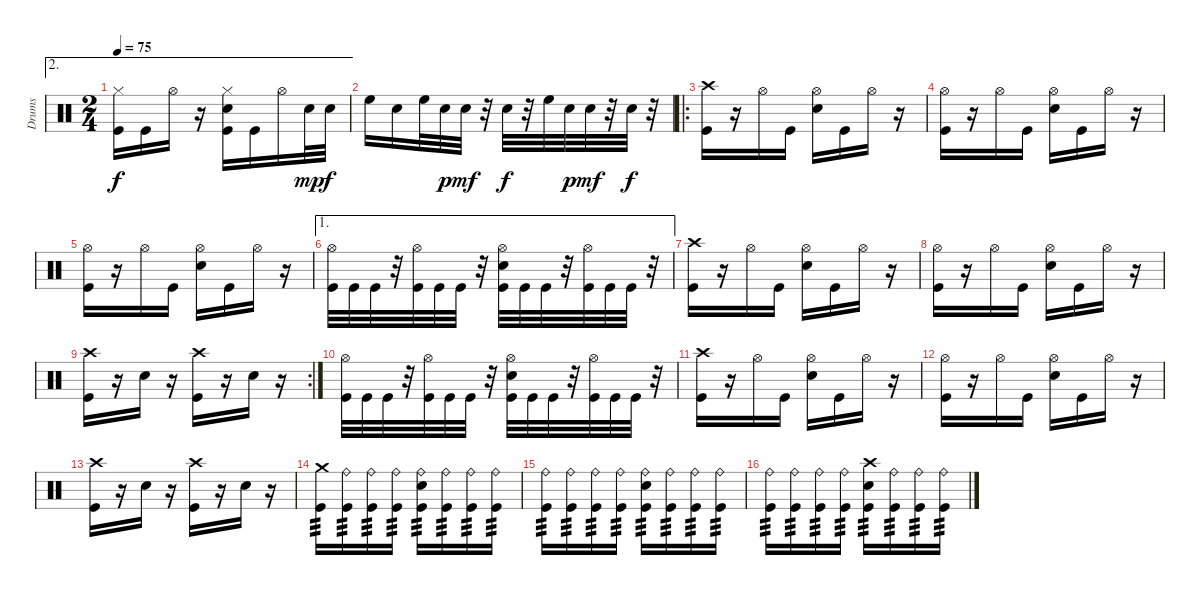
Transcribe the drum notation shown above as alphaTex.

\track ("Drums" "Drums") {instrument percussion}
\staff {score}
\articulation defaults
\ae 2
\ts (2 4)
\tempo 75
\clef neutral
\ks c
("Kick (hit)" "Hi-Hat (closed)").16{dy f} "Kick (hit)".16 "Hi-Hat (open)".16 r.16 ("Kick (hit)" "Hi-Hat (closed)" "Electric Snare (hit)").16 "Kick (hit)".16 "Hi-Hat (open)".16 "Electric Snare (hit)".32{dy mp} "Electric Snare (hit)".32{dy f} |
"High Floor Tom (hit)".16 "Electric Snare (hit)".16 "High Floor Tom (hit)".32 "Electric Snare (hit)".32{dy p} "Electric Snare (hit)".32{dy mf} r.32 "Electric Snare (hit)".32{dy f} r.32 "High Floor Tom (hit)".32 "Electric Snare (hit)".32{dy p} "Electric Snare (hit)".32{dy mf} r.32 "Electric Snare (hit)".32{dy f} r.32 |
\ro
("Crash high (hit)" "Kick (hit)").16 r.16 "Hi-Hat (open)".16 "Kick (hit)".16 ("Electric Snare (hit)" "Hi-Hat (open)").16 "Kick (hit)".16 "Hi-Hat (open)".16 r.16 |
("Kick (hit)" "Hi-Hat (open)").16 r.16 "Hi-Hat (open)".16 "Kick (hit)".16 ("Electric Snare (hit)" "Hi-Hat (open)").16 "Kick (hit)".16 "Hi-Hat (open)".16 r.16 |
("Kick (hit)" "Hi-Hat (open)").16 r.16 "Hi-Hat (open)".16 "Kick (hit)".16 ("Electric Snare (hit)" "Hi-Hat (open)").16 "Kick (hit)".16 "Hi-Hat (open)".16 r.16 |
\ae 1
("Hi-Hat (open)" "Kick (hit)").32 "Kick (hit)".32 "Kick (hit)".32 r.32 ("Hi-Hat (open)" "Kick (hit)").32 "Kick (hit)".32 "Kick (hit)".32 r.32 ("Hi-Hat (open)" "Electric Snare (hit)" "Kick (hit)").32 "Kick (hit)".32 "Kick (hit)".32 r.32 ("Hi-Hat (open)" "Kick (hit)").32 "Kick (hit)".32 "Kick (hit)".32 r.32 |
("Crash high (hit)" "Kick (hit)").16 r.16 "Hi-Hat (open)".16 "Kick (hit)".16 ("Electric Snare (hit)" "Hi-Hat (open)").16 "Kick (hit)".16 "Hi-Hat (open)".16 r.16 |
("Kick (hit)" "Hi-Hat (open)").16 r.16 "Hi-Hat (open)".16 "Kick (hit)".16 ("Electric Snare (hit)" "Hi-Hat (open)").16 "Kick (hit)".16 "Hi-Hat (open)".16 r.16 |
\rc 2
("Kick (hit)" "Crash high (hit)").16 r.16 "Electric Snare (hit)".16 r.16 ("Crash high (hit)" "Kick (hit)").16 r.16 "Electric Snare (hit)".16 r.16 |
("Hi-Hat (open)" "Kick (hit)").32 "Kick (hit)".32 "Kick (hit)".32 r.32 ("Hi-Hat (open)" "Kick (hit)").32 "Kick (hit)".32 "Kick (hit)".32 r.32 ("Hi-Hat (open)" "Electric Snare (hit)" "Kick (hit)").32 "Kick (hit)".32 "Kick (hit)".32 r.32 ("Hi-Hat (open)" "Kick (hit)").32 "Kick (hit)".32 "Kick (hit)".32 r.32 |
("Crash high (hit)" "Kick (hit)").16 r.16 "Hi-Hat (open)".16 "Kick (hit)".16 ("Electric Snare (hit)" "Hi-Hat (open)").16 "Kick (hit)".16 "Hi-Hat (open)".16 r.16 |
("Kick (hit)" "Hi-Hat (open)").16 r.16 "Hi-Hat (open)".16 "Kick (hit)".16 ("Electric Snare (hit)" "Hi-Hat (open)").16 "Kick (hit)".16 "Hi-Hat (open)".16 r.16 |
("Kick (hit)" "Crash high (hit)").16 r.16 "Electric Snare (hit)".16 r.16 ("Crash high (hit)" "Kick (hit)").16 r.16 "Electric Snare (hit)".16 r.16 |
("Crash medium (hit)" "Kick (hit)").16{tp 3} ("Ride (bell)" "Kick (hit)").16{tp 3} ("Ride (bell)" "Kick (hit)").16{tp 3} ("Ride (bell)" "Kick (hit)").16{tp 3} ("Ride (bell)" "Electric Snare (hit)" "Kick (hit)").16{tp 3} ("Ride (bell)" "Kick (hit)").16{tp 3} ("Ride (bell)" "Kick (hit)").16{tp 3} ("Ride (bell)" "Kick (hit)").16{tp 3} |
("Ride (bell)" "Kick (hit)").16{tp 3} ("Ride (bell)" "Kick (hit)").16{tp 3} ("Ride (bell)" "Kick (hit)").16{tp 3} ("Ride (bell)" "Kick (hit)").16{tp 3} ("Ride (bell)" "Electric Snare (hit)" "Kick (hit)").16{tp 3} ("Ride (bell)" "Kick (hit)").16{tp 3} ("Ride (bell)" "Kick (hit)").16{tp 3} ("Ride (bell)" "Kick (hit)").16{tp 3} |
("Ride (bell)" "Kick (hit)").16{tp 3} ("Ride (bell)" "Kick (hit)").16{tp 3} ("Ride (bell)" "Kick (hit)").16{tp 3} ("Ride (bell)" "Kick (hit)").16{tp 3} ("Crash high (hit)" "Electric Snare (hit)" "Kick (hit)").16{tp 3} ("Ride (bell)" "Kick (hit)").16{tp 3} ("Ride (bell)" "Kick (hit)").16{tp 3} ("Ride (bell)" "Kick (hit)").16{tp 3}
